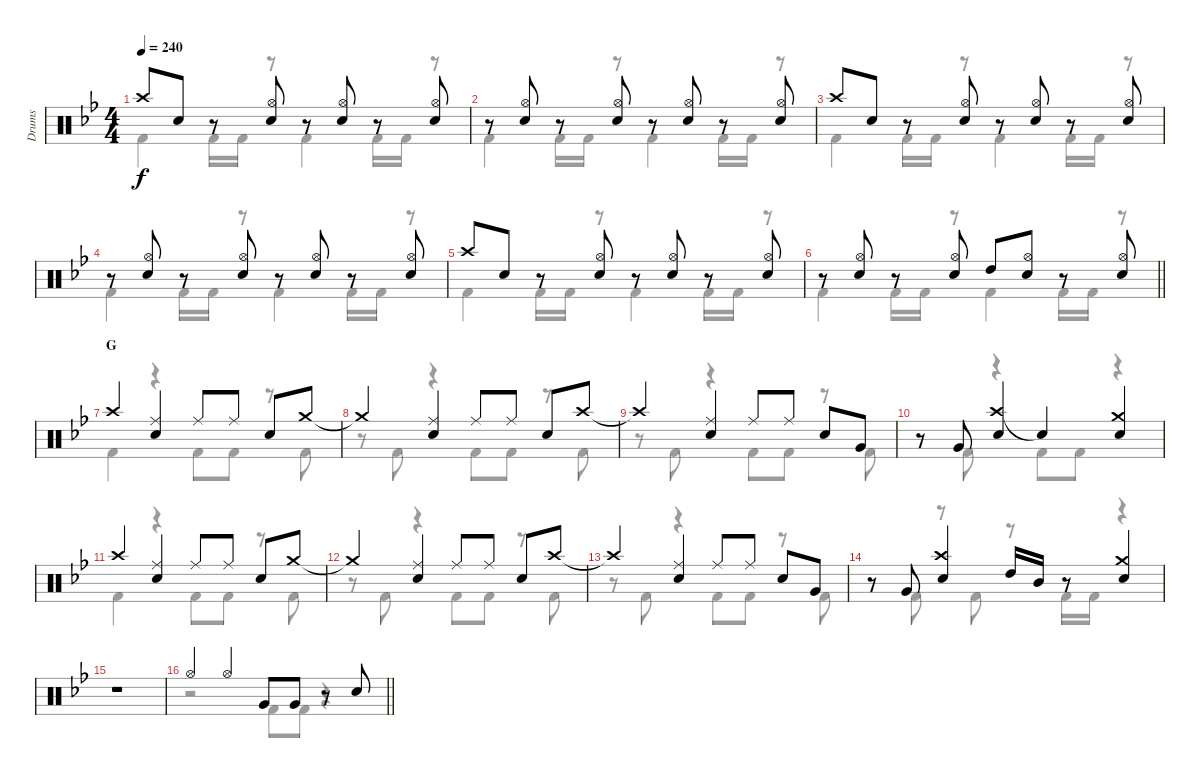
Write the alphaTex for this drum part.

\track ("Drums" "Drums") {instrument percussion}
\staff {score}
\articulation defaults
\voice
\ts (4 4)
\tempo 240
\clef neutral
\ks bb "Crash high (hit)".8{dy f} "Snare (hit) 2".8
r.8 ("Hi-Hat (open)" "Snare (hit) 2").8 r.8 ("Hi-Hat (open)" "Snare (hit) 2").8 r.8 ("Hi-Hat (open)" "Snare (hit) 2").8 |
r.8 ("Hi-Hat (open)" "Snare (hit) 2").8 r.8 ("Hi-Hat (open)" "Snare (hit) 2").8 r.8 ("Hi-Hat (open)" "Snare (hit) 2").8 r.8 ("Hi-Hat (open)" "Snare (hit) 2").8 |
"Crash high (hit)".8 "Snare (hit) 2".8 r.8 ("Hi-Hat (open)" "Snare (hit) 2").8 r.8 ("Hi-Hat (open)" "Snare (hit) 2").8 r.8 ("Hi-Hat (open)" "Snare (hit) 2").8 |
r.8 ("Hi-Hat (open)" "Snare (hit) 2").8 r.8 ("Hi-Hat (open)" "Snare (hit) 2").8 r.8 ("Hi-Hat (open)" "Snare (hit) 2").8 r.8 ("Hi-Hat (open)" "Snare (hit) 2").8 |
"Crash high (hit)".8 "Snare (hit) 2".8 r.8 ("Hi-Hat (open)" "Snare (hit) 2").8 r.8 ("Hi-Hat (open)" "Snare (hit) 2").8 r.8 ("Hi-Hat (open)" "Snare (hit) 2").8 |
\barLineRight lightlight
r.8 ("Hi-Hat (open)" "Snare (hit) 2").8 r.8 ("Hi-Hat (open)" "Snare (hit) 2").8 "High Tom (hit)".8 ("Hi-Hat (open)" "Snare (hit) 2").8 r.8 ("Hi-Hat (open)" "Snare (hit) 2").8 |
\section ("" "G")
"Crash high (hit)".4 ("Ride (middle)" "Snare (hit) 2").4 "Ride (middle)".8 "Ride (middle)".8 "Snare (hit) 2".8 "Crash medium (hit)".8 |
"Crash medium (hit)"{t}.4 ("Ride (middle)" "Snare (hit) 2").4 "Ride (middle)".8 "Ride (middle)".8 "Snare (hit) 2".8 "Crash high (hit)".8 |
"Crash high (hit)"{t}.4 ("Ride (middle)" "Snare (hit) 2").4 "Ride (middle)".8 "Ride (middle)".8 "Snare (hit) 2".8 "Very Low Tom (hit)".8 |
r.8 "Very Low Tom (hit)".8 ("Crash high (hit)" "Snare (hit) 2").4 "Snare (hit)"{t}.4 ("Crash medium (hit)" "Snare (hit) 2").4 |
"Crash high (hit)".4 ("Ride (middle)" "Snare (hit) 2").4 "Ride (middle)".8 "Ride (middle)".8 "Snare (hit) 2".8 "Crash medium (hit)".8 |
"Crash medium (hit)"{t}.4 ("Ride (middle)" "Snare (hit) 2").4 "Ride (middle)".8 "Ride (middle)".8 "Snare (hit) 2".8 "Crash high (hit)".8 |
"Crash high (hit)"{t}.4 ("Ride (middle)" "Snare (hit) 2").4 "Ride (middle)".8 "Ride (middle)".8 "Snare (hit) 2".8 "Very Low Tom (hit)".8 |
r.8 "Very Low Tom (hit)".8 ("Crash high (hit)" "Snare (hit) 2").4 "High Tom (hit)".16 "Mid Tom (hit)".16 r.8 ("Crash medium (hit)" "Snare (hit) 2").4 |
r.1 |
\barLineRight lightlight "Hi-Hat (open)".4 "Hi-Hat (open)".4 "Very Low Tom (hit)".8 "Very Low Tom (hit)".8
r.8 "Snare (hit) 2".8
\voice
\clef neutral
\ottava regular
\simile none
\ks bb "Kick (hit) 2".4{dy f} "Kick (hit) 2".16 "Kick (hit) 2".16
r.8 "Kick (hit) 2".4 "Kick (hit) 2".16 "Kick (hit) 2".16 r.8 |
"Kick (hit) 2".4 "Kick (hit) 2".16 "Kick (hit) 2".16 r.8 "Kick (hit) 2".4 "Kick (hit) 2".16 "Kick (hit) 2".16 r.8 |
"Kick (hit) 2".4 "Kick (hit) 2".16 "Kick (hit) 2".16 r.8 "Kick (hit) 2".4 "Kick (hit) 2".16 "Kick (hit) 2".16 r.8 |
"Kick (hit) 2".4 "Kick (hit) 2".16 "Kick (hit) 2".16 r.8 "Kick (hit) 2".4 "Kick (hit) 2".16 "Kick (hit) 2".16 r.8 |
"Kick (hit) 2".4 "Kick (hit) 2".16 "Kick (hit) 2".16 r.8 "Kick (hit) 2".4 "Kick (hit) 2".16 "Kick (hit) 2".16 r.8 |
\barLineRight lightlight "Kick (hit) 2".4 "Kick (hit) 2".16 "Kick (hit) 2".16
r.8 "Kick (hit) 2".4 "Kick (hit) 2".16 "Kick (hit) 2".16 r.8 |
"Kick (hit) 2".4 r.4 "Kick (hit) 2".8 "Kick (hit) 2".8 r.8 "Kick (hit) 2".8 |
r.8 "Kick (hit) 2".8 r.4 "Kick (hit) 2".8 "Kick (hit) 2".8 r.8 "Kick (hit) 2".8 |
r.8 "Kick (hit) 2".8 r.4 "Kick (hit) 2".8 "Kick (hit) 2".8 r.8 "Kick (hit) 2".8 |
r.8 "Kick (hit) 2".8 r.4 "Kick (hit) 2".8 "Kick (hit) 2".8 r.4 |
"Kick (hit) 2".4 r.4 "Kick (hit) 2".8 "Kick (hit) 2".8 r.8 "Kick (hit) 2".8 |
r.8 "Kick (hit) 2".8 r.4 "Kick (hit) 2".8 "Kick (hit) 2".8 r.8 "Kick (hit) 2".8 |
r.8 "Kick (hit) 2".8 r.4 "Kick (hit) 2".8 "Kick (hit) 2".8 r.8 "Kick (hit) 2".8 |
r.8 "Kick (hit) 2".8 r.8 "Kick (hit) 2".8 r.8 "Kick (hit) 2".16 "Kick (hit) 2".16 r.4 |
r.1 |
\barLineRight lightlight
r.2 "Kick (hit) 2".8 "Kick (hit) 2".8 r.4
